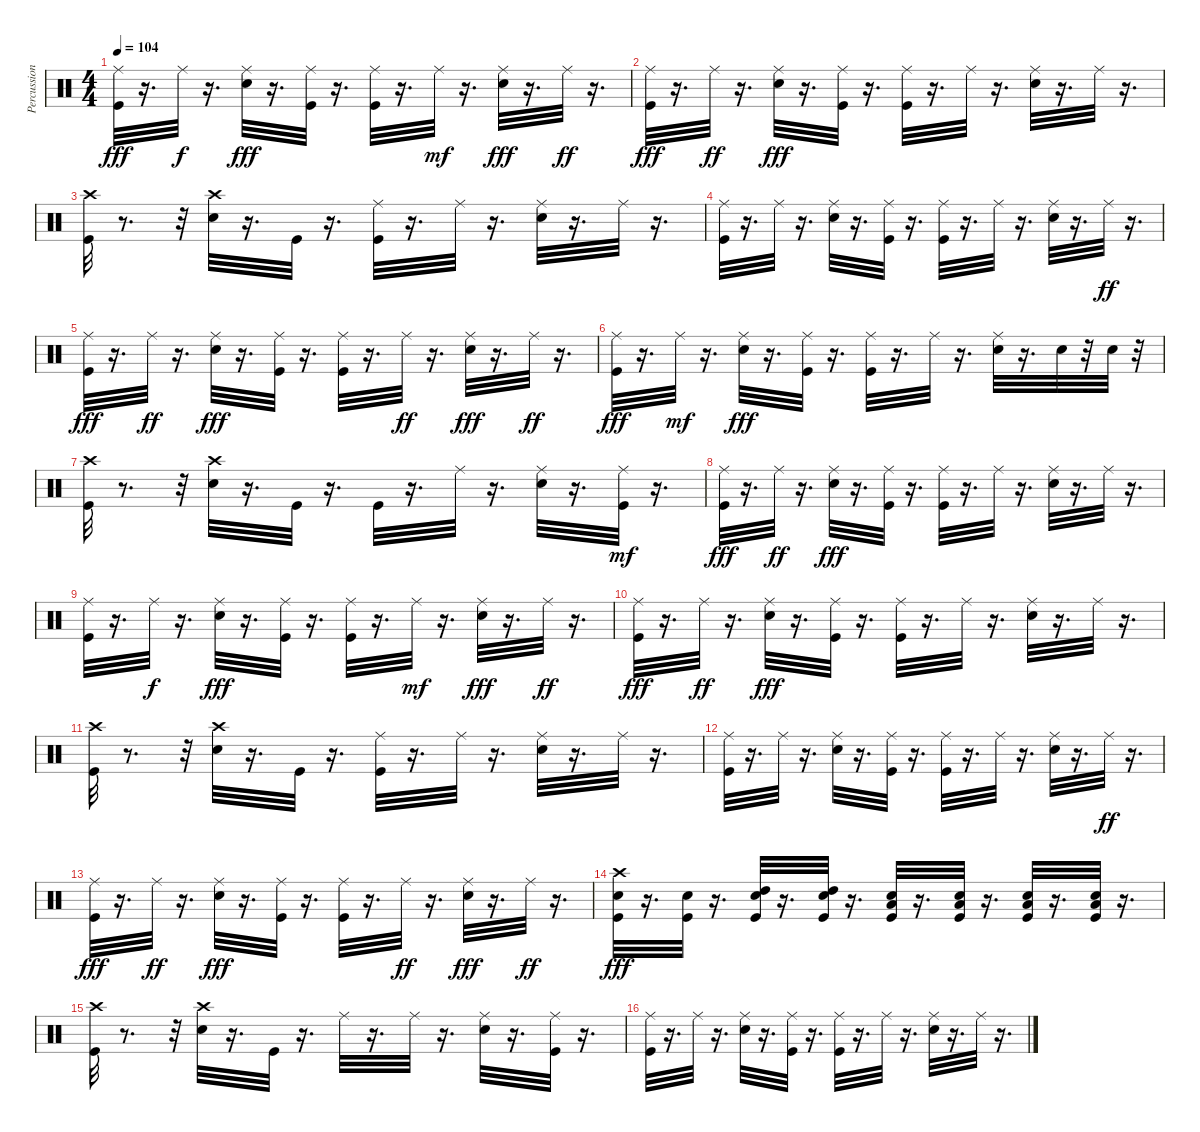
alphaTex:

\track ("Percussion" "Percussion") {instrument percussion}
\staff {score}
\articulation defaults
\ts (4 4)
\tempo 104
\clef neutral
\ks c
("Ride (middle)" "Kick (hit)").32{dy fff} r.16{d} "Ride (middle)".32{dy f} r.16{d} ("Ride (middle)" "Snare (hit) 2").32{dy fff} r.16{d} ("Ride (middle)" "Kick (hit)").32 r.16{d} ("Ride (middle)" "Kick (hit)").32 r.16{d} "Ride (middle)".32{dy mf} r.16{d} ("Ride (middle)" "Snare (hit) 2").32{dy fff} r.16{d} "Ride (middle)".32{dy ff} r.16{d} |
("Ride (middle)" "Kick (hit)").32{dy fff} r.16{d} "Ride (middle)".32{dy ff} r.16{d} ("Ride (middle)" "Snare (hit) 2").32{dy fff} r.16{d} ("Ride (middle)" "Kick (hit)").32 r.16{d} ("Ride (middle)" "Kick (hit)").32 r.16{d} "Ride (middle)".32 r.16{d} ("Ride (middle)" "Snare (hit) 2").32 r.16{d} "Ride (middle)".32 r.16{d} |
("Crash high (hit)" "Kick (hit)").32 r.8{d} r.32 ("Crash high (hit)" "Snare (hit) 2").32 r.16{d} "Kick (hit)".32 r.16{d} ("Ride (middle)" "Kick (hit)").32 r.16{d} "Ride (middle)".32 r.16{d} ("Ride (middle)" "Snare (hit) 2").32 r.16{d} "Ride (middle)".32 r.16{d} |
("Ride (middle)" "Kick (hit)").32 r.16{d} "Ride (middle)".32 r.16{d} ("Ride (middle)" "Snare (hit) 2").32 r.16{d} ("Ride (middle)" "Kick (hit)").32 r.16{d} ("Ride (middle)" "Kick (hit)").32 r.16{d} "Ride (middle)".32 r.16{d} ("Ride (middle)" "Snare (hit) 2").32 r.16{d} "Ride (middle)".32{dy ff} r.16{d} |
("Ride (middle)" "Kick (hit)").32{dy fff} r.16{d} "Ride (middle)".32{dy ff} r.16{d} ("Ride (middle)" "Snare (hit) 2").32{dy fff} r.16{d} ("Ride (middle)" "Kick (hit)").32 r.16{d} ("Ride (middle)" "Kick (hit)").32 r.16{d} "Ride (middle)".32{dy ff} r.16{d} ("Ride (middle)" "Snare (hit) 2").32{dy fff} r.16{d} "Ride (middle)".32{dy ff} r.16{d} |
("Ride (middle)" "Kick (hit)").32{dy fff} r.16{d} "Ride (middle)".32{dy mf} r.16{d} ("Ride (middle)" "Snare (hit) 2").32{dy fff} r.16{d} ("Ride (middle)" "Kick (hit)").32 r.16{d} ("Ride (middle)" "Kick (hit)").32 r.16{d} "Ride (middle)".32 r.16{d} ("Ride (middle)" "Snare (hit) 2").32 r.16{d} "Snare (hit) 2".32 r.32 "Snare (hit) 2".32 r.32 |
("Crash high (hit)" "Kick (hit)").32 r.8{d} r.32 ("Crash high (hit)" "Snare (hit) 2").32 r.16{d} "Kick (hit)".32 r.16{d} "Kick (hit)".32 r.16{d} "Ride (middle)".32 r.16{d} ("Ride (middle)" "Snare (hit) 2").32 r.16{d} ("Ride (middle)" "Kick (hit)").32{dy mf} r.16{d} |
("Ride (middle)" "Kick (hit)").32{dy fff} r.16{d} "Ride (middle)".32{dy ff} r.16{d} ("Ride (middle)" "Snare (hit) 2").32{dy fff} r.16{d} ("Ride (middle)" "Kick (hit)").32 r.16{d} ("Ride (middle)" "Kick (hit)").32 r.16{d} "Ride (middle)".32 r.16{d} ("Ride (middle)" "Snare (hit) 2").32 r.16{d} "Ride (middle)".32 r.16{d} |
("Ride (middle)" "Kick (hit)").32 r.16{d} "Ride (middle)".32{dy f} r.16{d} ("Ride (middle)" "Snare (hit) 2").32{dy fff} r.16{d} ("Ride (middle)" "Kick (hit)").32 r.16{d} ("Ride (middle)" "Kick (hit)").32 r.16{d} "Ride (middle)".32{dy mf} r.16{d} ("Ride (middle)" "Snare (hit) 2").32{dy fff} r.16{d} "Ride (middle)".32{dy ff} r.16{d} |
("Ride (middle)" "Kick (hit)").32{dy fff} r.16{d} "Ride (middle)".32{dy ff} r.16{d} ("Ride (middle)" "Snare (hit) 2").32{dy fff} r.16{d} ("Ride (middle)" "Kick (hit)").32 r.16{d} ("Ride (middle)" "Kick (hit)").32 r.16{d} "Ride (middle)".32 r.16{d} ("Ride (middle)" "Snare (hit) 2").32 r.16{d} "Ride (middle)".32 r.16{d} |
("Crash high (hit)" "Kick (hit)").32 r.8{d} r.32 ("Crash high (hit)" "Snare (hit) 2").32 r.16{d} "Kick (hit)".32 r.16{d} ("Ride (middle)" "Kick (hit)").32 r.16{d} "Ride (middle)".32 r.16{d} ("Ride (middle)" "Snare (hit) 2").32 r.16{d} "Ride (middle)".32 r.16{d} |
("Ride (middle)" "Kick (hit)").32 r.16{d} "Ride (middle)".32 r.16{d} ("Ride (middle)" "Snare (hit) 2").32 r.16{d} ("Ride (middle)" "Kick (hit)").32 r.16{d} ("Ride (middle)" "Kick (hit)").32 r.16{d} "Ride (middle)".32 r.16{d} ("Ride (middle)" "Snare (hit) 2").32 r.16{d} "Ride (middle)".32{dy ff} r.16{d} |
("Ride (middle)" "Kick (hit)").32{dy fff} r.16{d} "Ride (middle)".32{dy ff} r.16{d} ("Ride (middle)" "Snare (hit) 2").32{dy fff} r.16{d} ("Ride (middle)" "Kick (hit)").32 r.16{d} ("Ride (middle)" "Kick (hit)").32 r.16{d} "Ride (middle)".32{dy ff} r.16{d} ("Ride (middle)" "Snare (hit) 2").32{dy fff} r.16{d} "Ride (middle)".32{dy ff} r.16{d} |
("Crash high (hit)" "Snare (hit) 2" "Kick (hit)").32{dy fff} r.16{d} ("Snare (hit) 2" "Kick (hit)").32 r.16{d} ("High Tom (hit)" "Snare (hit) 2" "Kick (hit)").32 r.16{d} ("High Tom (hit)" "Snare (hit) 2" "Kick (hit)").32 r.16{d} ("Low Tom (hit)" "Snare (hit) 2" "Kick (hit)").32 r.16{d} ("Low Tom (hit)" "Snare (hit) 2" "Kick (hit)").32 r.16{d} ("Low Floor Tom (hit)" "Snare (hit) 2" "Kick (hit)").32 r.16{d} ("Low Floor Tom (hit)" "Snare (hit) 2" "Kick (hit)").32 r.16{d} |
("Crash high (hit)" "Kick (hit)").32 r.8{d} r.32 ("Crash high (hit)" "Snare (hit) 2").32 r.16{d} "Kick (hit)".32 r.16{d} "Ride (middle)".32 r.16{d} "Ride (middle)".32 r.16{d} ("Ride (middle)" "Snare (hit) 2").32 r.16{d} ("Ride (middle)" "Kick (hit)").32 r.16{d} |
("Ride (middle)" "Kick (hit)").32 r.16{d} "Ride (middle)".32 r.16{d} ("Ride (middle)" "Snare (hit) 2").32 r.16{d} ("Ride (middle)" "Kick (hit)").32 r.16{d} ("Ride (middle)" "Kick (hit)").32 r.16{d} "Ride (middle)".32 r.16{d} ("Ride (middle)" "Snare (hit) 2").32 r.16{d} "Ride (middle)".32 r.16{d}
